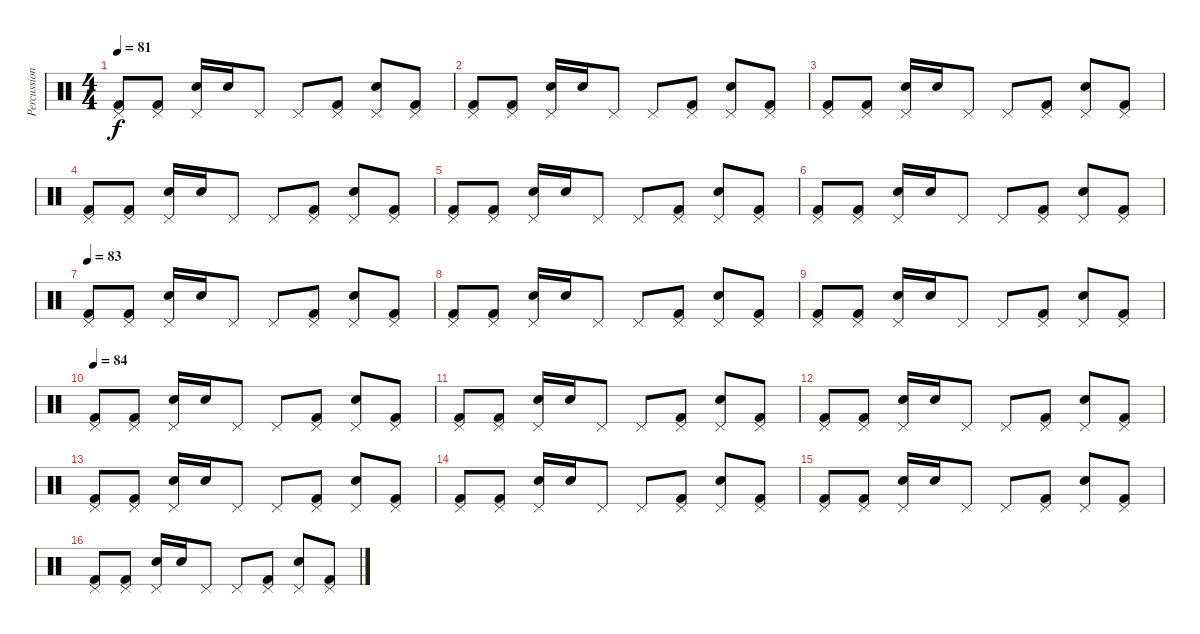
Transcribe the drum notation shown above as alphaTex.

\track ("Percussion" "Percussion") {instrument percussion}
\staff {score}
\articulation defaults
\ts (4 4)
\tempo 81
\clef neutral
\ks c
("Pedal Hi-Hat (hit)" "Kick (hit) 2").8{dy f} ("Pedal Hi-Hat (hit)" "Kick (hit) 2").8 ("Pedal Hi-Hat (hit)" "Snare (hit) 2").16 "Snare (hit) 2".16 "Pedal Hi-Hat (hit)".8 "Pedal Hi-Hat (hit)".8 ("Pedal Hi-Hat (hit)" "Kick (hit) 2").8 ("Pedal Hi-Hat (hit)" "Snare (hit) 2").8 ("Pedal Hi-Hat (hit)" "Kick (hit) 2").8 |
("Pedal Hi-Hat (hit)" "Kick (hit) 2").8 ("Pedal Hi-Hat (hit)" "Kick (hit) 2").8 ("Pedal Hi-Hat (hit)" "Snare (hit) 2").16 "Snare (hit) 2".16 "Pedal Hi-Hat (hit)".8 "Pedal Hi-Hat (hit)".8 ("Pedal Hi-Hat (hit)" "Kick (hit) 2").8 ("Pedal Hi-Hat (hit)" "Snare (hit) 2").8 ("Pedal Hi-Hat (hit)" "Kick (hit) 2").8 |
("Pedal Hi-Hat (hit)" "Kick (hit) 2").8 ("Pedal Hi-Hat (hit)" "Kick (hit) 2").8 ("Pedal Hi-Hat (hit)" "Snare (hit) 2").16 "Snare (hit) 2".16 "Pedal Hi-Hat (hit)".8 "Pedal Hi-Hat (hit)".8 ("Pedal Hi-Hat (hit)" "Kick (hit) 2").8 ("Pedal Hi-Hat (hit)" "Snare (hit) 2").8 ("Pedal Hi-Hat (hit)" "Kick (hit) 2").8 |
("Pedal Hi-Hat (hit)" "Kick (hit) 2").8 ("Pedal Hi-Hat (hit)" "Kick (hit) 2").8 ("Pedal Hi-Hat (hit)" "Snare (hit) 2").16 "Snare (hit) 2".16 "Pedal Hi-Hat (hit)".8 "Pedal Hi-Hat (hit)".8 ("Pedal Hi-Hat (hit)" "Kick (hit) 2").8 ("Pedal Hi-Hat (hit)" "Snare (hit) 2").8 ("Pedal Hi-Hat (hit)" "Kick (hit) 2").8 |
("Pedal Hi-Hat (hit)" "Kick (hit) 2").8 ("Pedal Hi-Hat (hit)" "Kick (hit) 2").8 ("Pedal Hi-Hat (hit)" "Snare (hit) 2").16 "Snare (hit) 2".16 "Pedal Hi-Hat (hit)".8 "Pedal Hi-Hat (hit)".8 ("Pedal Hi-Hat (hit)" "Kick (hit) 2").8 ("Pedal Hi-Hat (hit)" "Snare (hit) 2").8 ("Pedal Hi-Hat (hit)" "Kick (hit) 2").8 |
("Pedal Hi-Hat (hit)" "Kick (hit) 2").8 ("Pedal Hi-Hat (hit)" "Kick (hit) 2").8 ("Pedal Hi-Hat (hit)" "Snare (hit) 2").16 "Snare (hit) 2".16 "Pedal Hi-Hat (hit)".8 "Pedal Hi-Hat (hit)".8 ("Pedal Hi-Hat (hit)" "Kick (hit) 2").8 ("Pedal Hi-Hat (hit)" "Snare (hit) 2").8 ("Pedal Hi-Hat (hit)" "Kick (hit) 2").8 |
\tempo 83
("Pedal Hi-Hat (hit)" "Kick (hit) 2").8 ("Pedal Hi-Hat (hit)" "Kick (hit) 2").8 ("Pedal Hi-Hat (hit)" "Snare (hit) 2").16 "Snare (hit) 2".16 "Pedal Hi-Hat (hit)".8 "Pedal Hi-Hat (hit)".8 ("Pedal Hi-Hat (hit)" "Kick (hit) 2").8 ("Pedal Hi-Hat (hit)" "Snare (hit) 2").8 ("Pedal Hi-Hat (hit)" "Kick (hit) 2").8 |
("Pedal Hi-Hat (hit)" "Kick (hit) 2").8 ("Pedal Hi-Hat (hit)" "Kick (hit) 2").8 ("Pedal Hi-Hat (hit)" "Snare (hit) 2").16 "Snare (hit) 2".16 "Pedal Hi-Hat (hit)".8 "Pedal Hi-Hat (hit)".8 ("Pedal Hi-Hat (hit)" "Kick (hit) 2").8 ("Pedal Hi-Hat (hit)" "Snare (hit) 2").8 ("Pedal Hi-Hat (hit)" "Kick (hit) 2").8 |
("Pedal Hi-Hat (hit)" "Kick (hit) 2").8 ("Pedal Hi-Hat (hit)" "Kick (hit) 2").8 ("Pedal Hi-Hat (hit)" "Snare (hit) 2").16 "Snare (hit) 2".16 "Pedal Hi-Hat (hit)".8 "Pedal Hi-Hat (hit)".8 ("Pedal Hi-Hat (hit)" "Kick (hit) 2").8 ("Pedal Hi-Hat (hit)" "Snare (hit) 2").8 ("Pedal Hi-Hat (hit)" "Kick (hit) 2").8 |
\tempo 84
("Pedal Hi-Hat (hit)" "Kick (hit) 2").8 ("Pedal Hi-Hat (hit)" "Kick (hit) 2").8 ("Pedal Hi-Hat (hit)" "Snare (hit) 2").16 "Snare (hit) 2".16 "Pedal Hi-Hat (hit)".8 "Pedal Hi-Hat (hit)".8 ("Pedal Hi-Hat (hit)" "Kick (hit) 2").8 ("Pedal Hi-Hat (hit)" "Snare (hit) 2").8 ("Pedal Hi-Hat (hit)" "Kick (hit) 2").8 |
("Pedal Hi-Hat (hit)" "Kick (hit) 2").8 ("Pedal Hi-Hat (hit)" "Kick (hit) 2").8 ("Pedal Hi-Hat (hit)" "Snare (hit) 2").16 "Snare (hit) 2".16 "Pedal Hi-Hat (hit)".8 "Pedal Hi-Hat (hit)".8 ("Pedal Hi-Hat (hit)" "Kick (hit) 2").8 ("Pedal Hi-Hat (hit)" "Snare (hit) 2").8 ("Pedal Hi-Hat (hit)" "Kick (hit) 2").8 |
("Pedal Hi-Hat (hit)" "Kick (hit) 2").8 ("Pedal Hi-Hat (hit)" "Kick (hit) 2").8 ("Pedal Hi-Hat (hit)" "Snare (hit) 2").16 "Snare (hit) 2".16 "Pedal Hi-Hat (hit)".8 "Pedal Hi-Hat (hit)".8 ("Pedal Hi-Hat (hit)" "Kick (hit) 2").8 ("Pedal Hi-Hat (hit)" "Snare (hit) 2").8 ("Pedal Hi-Hat (hit)" "Kick (hit) 2").8 |
("Pedal Hi-Hat (hit)" "Kick (hit) 2").8 ("Pedal Hi-Hat (hit)" "Kick (hit) 2").8 ("Pedal Hi-Hat (hit)" "Snare (hit) 2").16 "Snare (hit) 2".16 "Pedal Hi-Hat (hit)".8 "Pedal Hi-Hat (hit)".8 ("Pedal Hi-Hat (hit)" "Kick (hit) 2").8 ("Pedal Hi-Hat (hit)" "Snare (hit) 2").8 ("Pedal Hi-Hat (hit)" "Kick (hit) 2").8 |
("Pedal Hi-Hat (hit)" "Kick (hit) 2").8 ("Pedal Hi-Hat (hit)" "Kick (hit) 2").8 ("Pedal Hi-Hat (hit)" "Snare (hit) 2").16 "Snare (hit) 2".16 "Pedal Hi-Hat (hit)".8 "Pedal Hi-Hat (hit)".8 ("Pedal Hi-Hat (hit)" "Kick (hit) 2").8 ("Pedal Hi-Hat (hit)" "Snare (hit) 2").8 ("Pedal Hi-Hat (hit)" "Kick (hit) 2").8 |
("Pedal Hi-Hat (hit)" "Kick (hit) 2").8 ("Pedal Hi-Hat (hit)" "Kick (hit) 2").8 ("Pedal Hi-Hat (hit)" "Snare (hit) 2").16 "Snare (hit) 2".16 "Pedal Hi-Hat (hit)".8 "Pedal Hi-Hat (hit)".8 ("Pedal Hi-Hat (hit)" "Kick (hit) 2").8 ("Pedal Hi-Hat (hit)" "Snare (hit) 2").8 ("Pedal Hi-Hat (hit)" "Kick (hit) 2").8 |
("Pedal Hi-Hat (hit)" "Kick (hit) 2").8 ("Pedal Hi-Hat (hit)" "Kick (hit) 2").8 ("Pedal Hi-Hat (hit)" "Snare (hit) 2").16 "Snare (hit) 2".16 "Pedal Hi-Hat (hit)".8 "Pedal Hi-Hat (hit)".8 ("Pedal Hi-Hat (hit)" "Kick (hit) 2").8 ("Pedal Hi-Hat (hit)" "Snare (hit) 2").8 ("Pedal Hi-Hat (hit)" "Kick (hit) 2").8
